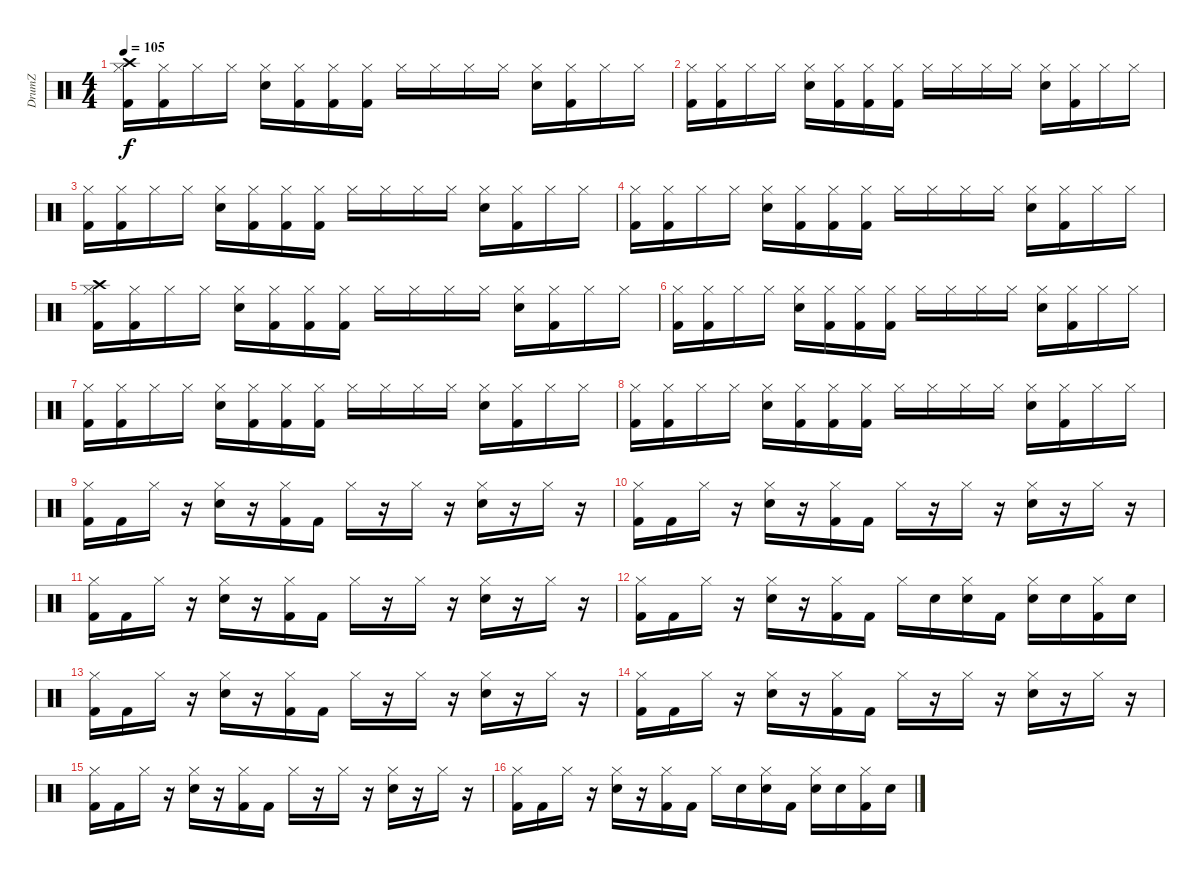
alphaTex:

\track ("DrumZ" "DrumZ") {instrument percussion}
\staff {score}
\articulation defaults
\ts (4 4)
\tempo 105
\clef neutral
\ks c
("Crash high (hit)" "Hi-Hat (closed)" "Kick (hit) 2").16{dy f} ("Hi-Hat (closed)" "Kick (hit) 2").16 "Hi-Hat (closed)".16 "Hi-Hat (closed)".16 ("Hi-Hat (closed)" "Electric Snare (hit)").16 ("Hi-Hat (closed)" "Kick (hit) 2").16 ("Hi-Hat (closed)" "Kick (hit) 2").16 ("Hi-Hat (closed)" "Kick (hit) 2").16 "Hi-Hat (closed)".16 "Hi-Hat (closed)".16 "Hi-Hat (closed)".16 "Hi-Hat (closed)".16 ("Hi-Hat (closed)" "Electric Snare (hit)").16 ("Hi-Hat (closed)" "Kick (hit) 2").16 "Hi-Hat (closed)".16 "Hi-Hat (closed)".16 |
("Hi-Hat (closed)" "Kick (hit) 2").16 ("Hi-Hat (closed)" "Kick (hit) 2").16 "Hi-Hat (closed)".16 "Hi-Hat (closed)".16 ("Hi-Hat (closed)" "Electric Snare (hit)").16 ("Hi-Hat (closed)" "Kick (hit) 2").16 ("Hi-Hat (closed)" "Kick (hit) 2").16 ("Hi-Hat (closed)" "Kick (hit) 2").16 "Hi-Hat (closed)".16 "Hi-Hat (closed)".16 "Hi-Hat (closed)".16 "Hi-Hat (closed)".16 ("Hi-Hat (closed)" "Electric Snare (hit)").16 ("Hi-Hat (closed)" "Kick (hit) 2").16 "Hi-Hat (closed)".16 "Hi-Hat (closed)".16 |
("Hi-Hat (closed)" "Kick (hit) 2").16 ("Hi-Hat (closed)" "Kick (hit) 2").16 "Hi-Hat (closed)".16 "Hi-Hat (closed)".16 ("Hi-Hat (closed)" "Electric Snare (hit)").16 ("Hi-Hat (closed)" "Kick (hit) 2").16 ("Hi-Hat (closed)" "Kick (hit) 2").16 ("Hi-Hat (closed)" "Kick (hit) 2").16 "Hi-Hat (closed)".16 "Hi-Hat (closed)".16 "Hi-Hat (closed)".16 "Hi-Hat (closed)".16 ("Hi-Hat (closed)" "Electric Snare (hit)").16 ("Hi-Hat (closed)" "Kick (hit) 2").16 "Hi-Hat (closed)".16 "Hi-Hat (closed)".16 |
("Hi-Hat (closed)" "Kick (hit) 2").16 ("Hi-Hat (closed)" "Kick (hit) 2").16 "Hi-Hat (closed)".16 "Hi-Hat (closed)".16 ("Hi-Hat (closed)" "Electric Snare (hit)").16 ("Hi-Hat (closed)" "Kick (hit) 2").16 ("Hi-Hat (closed)" "Kick (hit) 2").16 ("Hi-Hat (closed)" "Kick (hit) 2").16 "Hi-Hat (closed)".16 "Hi-Hat (closed)".16 "Hi-Hat (closed)".16 "Hi-Hat (closed)".16 ("Hi-Hat (closed)" "Electric Snare (hit)").16 ("Hi-Hat (closed)" "Kick (hit) 2").16 "Hi-Hat (closed)".16 "Hi-Hat (closed)".16 |
("Crash high (hit)" "Hi-Hat (closed)" "Kick (hit) 2").16 ("Hi-Hat (closed)" "Kick (hit) 2").16 "Hi-Hat (closed)".16 "Hi-Hat (closed)".16 ("Hi-Hat (closed)" "Electric Snare (hit)").16 ("Hi-Hat (closed)" "Kick (hit) 2").16 ("Hi-Hat (closed)" "Kick (hit) 2").16 ("Hi-Hat (closed)" "Kick (hit) 2").16 "Hi-Hat (closed)".16 "Hi-Hat (closed)".16 "Hi-Hat (closed)".16 "Hi-Hat (closed)".16 ("Hi-Hat (closed)" "Electric Snare (hit)").16 ("Hi-Hat (closed)" "Kick (hit) 2").16 "Hi-Hat (closed)".16 "Hi-Hat (closed)".16 |
("Hi-Hat (closed)" "Kick (hit) 2").16 ("Hi-Hat (closed)" "Kick (hit) 2").16 "Hi-Hat (closed)".16 "Hi-Hat (closed)".16 ("Hi-Hat (closed)" "Electric Snare (hit)").16 ("Hi-Hat (closed)" "Kick (hit) 2").16 ("Hi-Hat (closed)" "Kick (hit) 2").16 ("Hi-Hat (closed)" "Kick (hit) 2").16 "Hi-Hat (closed)".16 "Hi-Hat (closed)".16 "Hi-Hat (closed)".16 "Hi-Hat (closed)".16 ("Hi-Hat (closed)" "Electric Snare (hit)").16 ("Hi-Hat (closed)" "Kick (hit) 2").16 "Hi-Hat (closed)".16 "Hi-Hat (closed)".16 |
("Hi-Hat (closed)" "Kick (hit) 2").16 ("Hi-Hat (closed)" "Kick (hit) 2").16 "Hi-Hat (closed)".16 "Hi-Hat (closed)".16 ("Hi-Hat (closed)" "Electric Snare (hit)").16 ("Hi-Hat (closed)" "Kick (hit) 2").16 ("Hi-Hat (closed)" "Kick (hit) 2").16 ("Hi-Hat (closed)" "Kick (hit) 2").16 "Hi-Hat (closed)".16 "Hi-Hat (closed)".16 "Hi-Hat (closed)".16 "Hi-Hat (closed)".16 ("Hi-Hat (closed)" "Electric Snare (hit)").16 ("Hi-Hat (closed)" "Kick (hit) 2").16 "Hi-Hat (closed)".16 "Hi-Hat (closed)".16 |
("Hi-Hat (closed)" "Kick (hit) 2").16 ("Hi-Hat (closed)" "Kick (hit) 2").16 "Hi-Hat (closed)".16 "Hi-Hat (closed)".16 ("Hi-Hat (closed)" "Electric Snare (hit)").16 ("Hi-Hat (closed)" "Kick (hit) 2").16 ("Hi-Hat (closed)" "Kick (hit) 2").16 ("Hi-Hat (closed)" "Kick (hit) 2").16 "Hi-Hat (closed)".16 "Hi-Hat (closed)".16 "Hi-Hat (closed)".16 "Hi-Hat (closed)".16 ("Hi-Hat (closed)" "Electric Snare (hit)").16 ("Hi-Hat (closed)" "Kick (hit) 2").16 "Hi-Hat (closed)".16 "Hi-Hat (closed)".16 |
("Hi-Hat (closed)" "Kick (hit) 2").16 "Kick (hit) 2".16 "Hi-Hat (closed)".16 r.16 ("Hi-Hat (closed)" "Electric Snare (hit)").16 r.16 ("Hi-Hat (closed)" "Kick (hit) 2").16 "Kick (hit) 2".16 "Hi-Hat (closed)".16 r.16 "Hi-Hat (closed)".16 r.16 ("Hi-Hat (closed)" "Electric Snare (hit)").16 r.16 "Hi-Hat (closed)".16 r.16 |
("Hi-Hat (closed)" "Kick (hit) 2").16 "Kick (hit) 2".16 "Hi-Hat (closed)".16 r.16 ("Hi-Hat (closed)" "Electric Snare (hit)").16 r.16 ("Hi-Hat (closed)" "Kick (hit) 2").16 "Kick (hit) 2".16 "Hi-Hat (closed)".16 r.16 "Hi-Hat (closed)".16 r.16 ("Hi-Hat (closed)" "Electric Snare (hit)").16 r.16 "Hi-Hat (closed)".16 r.16 |
("Hi-Hat (closed)" "Kick (hit) 2").16 "Kick (hit) 2".16 "Hi-Hat (closed)".16 r.16 ("Hi-Hat (closed)" "Electric Snare (hit)").16 r.16 ("Hi-Hat (closed)" "Kick (hit) 2").16 "Kick (hit) 2".16 "Hi-Hat (closed)".16 r.16 "Hi-Hat (closed)".16 r.16 ("Hi-Hat (closed)" "Electric Snare (hit)").16 r.16 "Hi-Hat (closed)".16 r.16 |
("Hi-Hat (closed)" "Kick (hit) 2").16 "Kick (hit) 2".16 "Hi-Hat (closed)".16 r.16 ("Hi-Hat (closed)" "Electric Snare (hit)").16 r.16 ("Hi-Hat (closed)" "Kick (hit) 2").16 "Kick (hit) 2".16 "Hi-Hat (closed)".16 "Electric Snare (hit)".16 ("Hi-Hat (closed)" "Electric Snare (hit)").16 "Kick (hit) 2".16 ("Hi-Hat (closed)" "Electric Snare (hit)").16 "Electric Snare (hit)".16 ("Hi-Hat (closed)" "Kick (hit) 2").16 "Electric Snare (hit)".16 |
("Hi-Hat (closed)" "Kick (hit) 2").16 "Kick (hit) 2".16 "Hi-Hat (closed)".16 r.16 ("Hi-Hat (closed)" "Electric Snare (hit)").16 r.16 ("Hi-Hat (closed)" "Kick (hit) 2").16 "Kick (hit) 2".16 "Hi-Hat (closed)".16 r.16 "Hi-Hat (closed)".16 r.16 ("Hi-Hat (closed)" "Electric Snare (hit)").16 r.16 "Hi-Hat (closed)".16 r.16 |
("Hi-Hat (closed)" "Kick (hit) 2").16 "Kick (hit) 2".16 "Hi-Hat (closed)".16 r.16 ("Hi-Hat (closed)" "Electric Snare (hit)").16 r.16 ("Hi-Hat (closed)" "Kick (hit) 2").16 "Kick (hit) 2".16 "Hi-Hat (closed)".16 r.16 "Hi-Hat (closed)".16 r.16 ("Hi-Hat (closed)" "Electric Snare (hit)").16 r.16 "Hi-Hat (closed)".16 r.16 |
("Hi-Hat (closed)" "Kick (hit) 2").16 "Kick (hit) 2".16 "Hi-Hat (closed)".16 r.16 ("Hi-Hat (closed)" "Electric Snare (hit)").16 r.16 ("Hi-Hat (closed)" "Kick (hit) 2").16 "Kick (hit) 2".16 "Hi-Hat (closed)".16 r.16 "Hi-Hat (closed)".16 r.16 ("Hi-Hat (closed)" "Electric Snare (hit)").16 r.16 "Hi-Hat (closed)".16 r.16 |
("Hi-Hat (closed)" "Kick (hit) 2").16 "Kick (hit) 2".16 "Hi-Hat (closed)".16 r.16 ("Hi-Hat (closed)" "Electric Snare (hit)").16 r.16 ("Hi-Hat (closed)" "Kick (hit) 2").16 "Kick (hit) 2".16 "Hi-Hat (closed)".16 "Electric Snare (hit)".16 ("Hi-Hat (closed)" "Electric Snare (hit)").16 "Kick (hit) 2".16 ("Hi-Hat (closed)" "Electric Snare (hit)").16 "Electric Snare (hit)".16 ("Hi-Hat (closed)" "Kick (hit) 2").16 "Electric Snare (hit)".16
